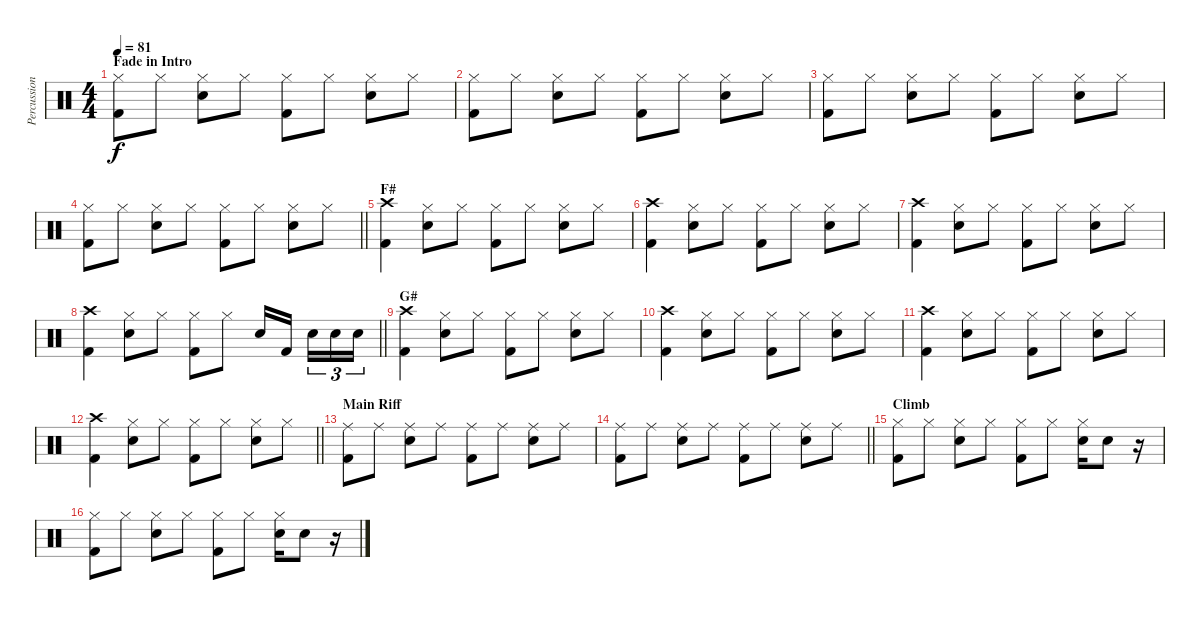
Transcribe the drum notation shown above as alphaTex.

\track ("Percussion" "Percussion") {instrument percussion}
\staff {score}
\articulation defaults
\ts (4 4)
\section ("" "Fade in Intro")
\tempo 81
\clef neutral
\ks c
("Hi-Hat (closed)" "Kick (hit) 2").8{dy f} "Hi-Hat (closed)".8 ("Hi-Hat (closed)" "Snare (hit) 2").8 "Hi-Hat (closed)".8 ("Hi-Hat (closed)" "Kick (hit) 2").8 "Hi-Hat (closed)".8 ("Hi-Hat (closed)" "Snare (hit) 2").8 "Hi-Hat (closed)".8 |
("Hi-Hat (closed)" "Kick (hit) 2").8 "Hi-Hat (closed)".8 ("Hi-Hat (closed)" "Snare (hit) 2").8 "Hi-Hat (closed)".8 ("Hi-Hat (closed)" "Kick (hit) 2").8 "Hi-Hat (closed)".8 ("Hi-Hat (closed)" "Snare (hit) 2").8 "Hi-Hat (closed)".8 |
("Hi-Hat (closed)" "Kick (hit) 2").8 "Hi-Hat (closed)".8 ("Hi-Hat (closed)" "Snare (hit) 2").8 "Hi-Hat (closed)".8 ("Hi-Hat (closed)" "Kick (hit) 2").8 "Hi-Hat (closed)".8 ("Hi-Hat (closed)" "Snare (hit) 2").8 "Hi-Hat (closed)".8 |
\barLineRight lightlight
("Hi-Hat (closed)" "Kick (hit) 2").8 "Hi-Hat (closed)".8 ("Hi-Hat (closed)" "Snare (hit) 2").8 "Hi-Hat (closed)".8 ("Hi-Hat (closed)" "Kick (hit) 2").8 "Hi-Hat (closed)".8 ("Hi-Hat (closed)" "Snare (hit) 2").8 "Hi-Hat (closed)".8 |
\section ("" "F#")
("Crash high (hit)" "Kick (hit) 2").4 ("Hi-Hat (closed)" "Snare (hit) 2").8 "Hi-Hat (closed)".8 ("Hi-Hat (closed)" "Kick (hit) 2").8 "Hi-Hat (closed)".8 ("Hi-Hat (closed)" "Snare (hit) 2").8 "Hi-Hat (closed)".8 |
("Crash high (hit)" "Kick (hit) 2").4 ("Hi-Hat (closed)" "Snare (hit) 2").8 "Hi-Hat (closed)".8 ("Hi-Hat (closed)" "Kick (hit) 2").8 "Hi-Hat (closed)".8 ("Hi-Hat (closed)" "Snare (hit) 2").8 "Hi-Hat (closed)".8 |
("Crash high (hit)" "Kick (hit) 2").4 ("Hi-Hat (closed)" "Snare (hit) 2").8 "Hi-Hat (closed)".8 ("Hi-Hat (closed)" "Kick (hit) 2").8 "Hi-Hat (closed)".8 ("Hi-Hat (closed)" "Snare (hit) 2").8 "Hi-Hat (closed)".8 |
\barLineRight lightlight
("Crash high (hit)" "Kick (hit) 2").4 ("Hi-Hat (closed)" "Snare (hit) 2").8 "Hi-Hat (closed)".8 ("Hi-Hat (closed)" "Kick (hit) 2").8 "Hi-Hat (closed)".8 "Snare (hit) 2".16 "Kick (hit) 2".16 "Snare (hit) 2".16{tu (3 2)} "Snare (hit) 2".16{tu (3 2)} "Snare (hit) 2".16{tu (3 2)} |
\section ("" "G#")
("Crash high (hit)" "Kick (hit) 2").4 ("Hi-Hat (closed)" "Snare (hit) 2").8 "Hi-Hat (closed)".8 ("Hi-Hat (closed)" "Kick (hit) 2").8 "Hi-Hat (closed)".8 ("Hi-Hat (closed)" "Snare (hit) 2").8 "Hi-Hat (closed)".8 |
("Crash high (hit)" "Kick (hit) 2").4 ("Hi-Hat (closed)" "Snare (hit) 2").8 "Hi-Hat (closed)".8 ("Hi-Hat (closed)" "Kick (hit) 2").8 "Hi-Hat (closed)".8 ("Hi-Hat (closed)" "Snare (hit) 2").8 "Hi-Hat (closed)".8 |
("Crash high (hit)" "Kick (hit) 2").4 ("Hi-Hat (closed)" "Snare (hit) 2").8 "Hi-Hat (closed)".8 ("Hi-Hat (closed)" "Kick (hit) 2").8 "Hi-Hat (closed)".8 ("Hi-Hat (closed)" "Snare (hit) 2").8 "Hi-Hat (closed)".8 |
\barLineRight lightlight
("Crash high (hit)" "Kick (hit) 2").4 ("Hi-Hat (closed)" "Snare (hit) 2").8 "Hi-Hat (closed)".8 ("Hi-Hat (closed)" "Kick (hit) 2").8 "Hi-Hat (closed)".8 ("Hi-Hat (closed)" "Snare (hit) 2").8 "Hi-Hat (closed)".8 |
\section ("" "Main Riff")
("Ride (middle)" "Kick (hit) 2").8 "Ride (middle)".8 ("Ride (middle)" "Snare (hit) 2").8 "Ride (middle)".8 ("Ride (middle)" "Kick (hit) 2").8 "Ride (middle)".8 ("Ride (middle)" "Snare (hit) 2").8 "Ride (middle)".8 |
\barLineRight lightlight
("Ride (middle)" "Kick (hit) 2").8 "Ride (middle)".8 ("Ride (middle)" "Snare (hit) 2").8 "Ride (middle)".8 ("Ride (middle)" "Kick (hit) 2").8 "Ride (middle)".8 ("Ride (middle)" "Snare (hit) 2").8 "Ride (middle)".8 |
\section ("" "Climb")
("Hi-Hat (closed)" "Kick (hit) 2").8 "Hi-Hat (closed)".8 ("Hi-Hat (closed)" "Snare (hit) 2").8 "Hi-Hat (closed)".8 ("Hi-Hat (closed)" "Kick (hit) 2").8 "Hi-Hat (closed)".8 ("Hi-Hat (closed)" "Snare (hit) 2").16 "Snare (hit) 2".8 r.16 |
("Hi-Hat (closed)" "Kick (hit) 2").8 "Hi-Hat (closed)".8 ("Hi-Hat (closed)" "Snare (hit) 2").8 "Hi-Hat (closed)".8 ("Hi-Hat (closed)" "Kick (hit) 2").8 "Hi-Hat (closed)".8 ("Hi-Hat (closed)" "Snare (hit) 2").16 "Snare (hit) 2".8 r.16
